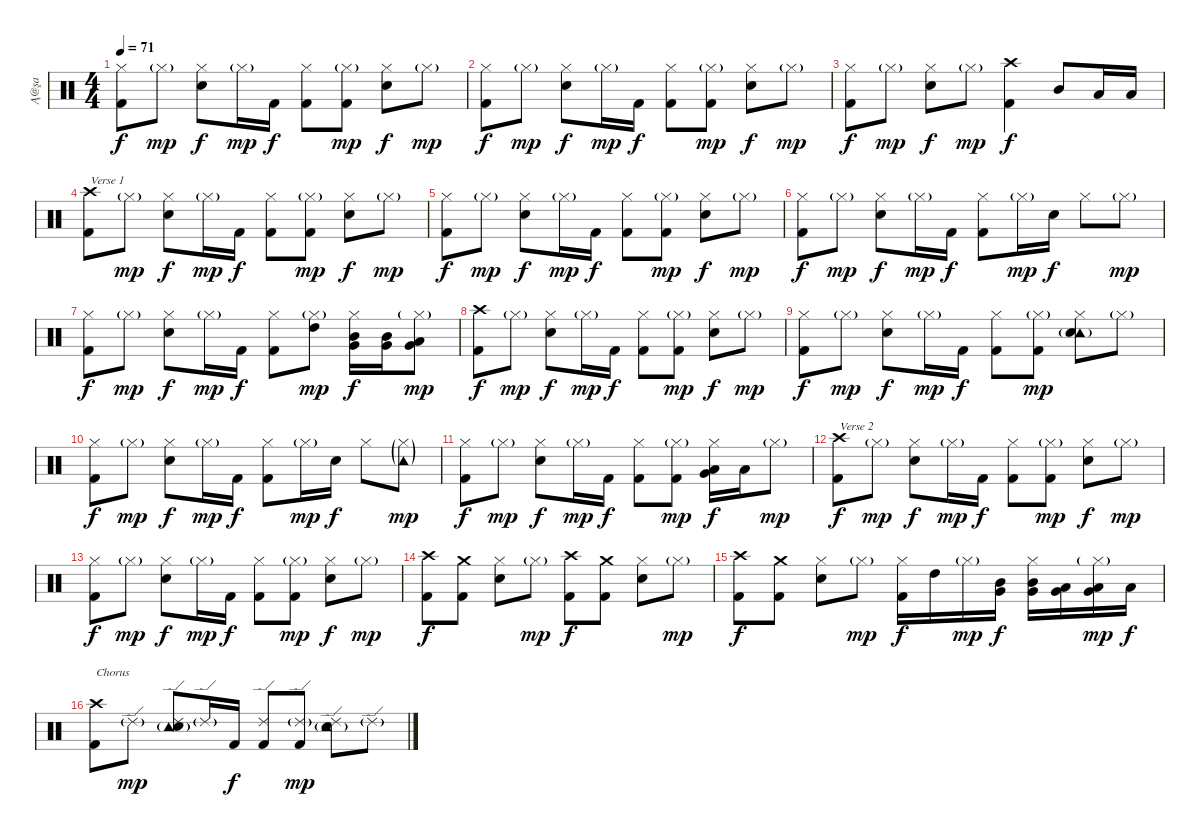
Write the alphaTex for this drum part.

\track ("Ą@şa" "Ą@şa") {instrument percussion}
\staff {score}
\articulation defaults
\ts (4 4)
\tempo 71
\clef neutral
\ks c
("Hi-Hat (closed)" "Kick (hit) 2").8{dy f} "Hi-Hat (closed)"{g}.8{dy mp} ("Hi-Hat (closed)" "Electric Snare (hit)").8{dy f} "Hi-Hat (closed)"{g}.16{dy mp} "Kick (hit) 2".16{dy f} ("Hi-Hat (closed)" "Kick (hit) 2").8 ("Hi-Hat (closed)"{g} "Kick (hit) 2").8{dy mp} ("Hi-Hat (closed)" "Electric Snare (hit)").8{dy f} "Hi-Hat (closed)"{g}.8{dy mp} |
("Hi-Hat (closed)" "Kick (hit) 2").8{dy f} "Hi-Hat (closed)"{g}.8{dy mp} ("Hi-Hat (closed)" "Electric Snare (hit)").8{dy f} "Hi-Hat (closed)"{g}.16{dy mp} "Kick (hit) 2".16{dy f} ("Hi-Hat (closed)" "Kick (hit) 2").8 ("Hi-Hat (closed)"{g} "Kick (hit) 2").8{dy mp} ("Hi-Hat (closed)" "Electric Snare (hit)").8{dy f} "Hi-Hat (closed)"{g}.8{dy mp} |
("Hi-Hat (closed)" "Kick (hit) 2").8{dy f} "Hi-Hat (closed)"{g}.8{dy mp} ("Hi-Hat (closed)" "Electric Snare (hit)").8{dy f} "Hi-Hat (closed)"{g}.8{dy mp} ("Crash high (hit)" "Kick (hit) 2").4{dy f} "Mid Tom (hit)".8 "Low Tom (hit)".16 "Low Tom (hit)".16 |
("Crash high (hit)" "Kick (hit) 2").8{txt "Verse 1"} "Hi-Hat (closed)"{g}.8{dy mp} ("Hi-Hat (closed)" "Electric Snare (hit)").8{dy f} "Hi-Hat (closed)"{g}.16{dy mp} "Kick (hit) 2".16{dy f} ("Hi-Hat (closed)" "Kick (hit) 2").8 ("Hi-Hat (closed)"{g} "Kick (hit) 2").8{dy mp} ("Hi-Hat (closed)" "Electric Snare (hit)").8{dy f} "Hi-Hat (closed)"{g}.8{dy mp} |
("Hi-Hat (closed)" "Kick (hit) 2").8{dy f} "Hi-Hat (closed)"{g}.8{dy mp} ("Hi-Hat (closed)" "Electric Snare (hit)").8{dy f} "Hi-Hat (closed)"{g}.16{dy mp} "Kick (hit) 2".16{dy f} ("Hi-Hat (closed)" "Kick (hit) 2").8 ("Hi-Hat (closed)"{g} "Kick (hit) 2").8{dy mp} ("Hi-Hat (closed)" "Electric Snare (hit)").8{dy f} "Hi-Hat (closed)"{g}.8{dy mp} |
("Hi-Hat (closed)" "Kick (hit) 2").8{dy f} "Hi-Hat (closed)"{g}.8{dy mp} ("Hi-Hat (closed)" "Electric Snare (hit)").8{dy f} "Hi-Hat (closed)"{g}.16{dy mp} "Kick (hit) 2".16{dy f} ("Hi-Hat (closed)" "Kick (hit) 2").8 "Hi-Hat (closed)"{g}.16{dy mp} "Electric Snare (hit)".16{dy f} "Hi-Hat (closed)".8 "Hi-Hat (closed)"{g}.8{dy mp} |
("Hi-Hat (closed)" "Kick (hit) 2").8{dy f} "Hi-Hat (closed)"{g}.8{dy mp} ("Hi-Hat (closed)" "Electric Snare (hit)").8{dy f} "Hi-Hat (closed)"{g}.16{dy mp} "Kick (hit) 2".16{dy f} ("Hi-Hat (closed)" "Kick (hit) 2").8 ("Hi-Hat (closed)"{g} "High Tom (hit)").8{dy mp} ("Hi-Hat (closed)" "Mid Tom (hit)" "Very Low Tom (hit)").16{dy f} ("Mid Tom (hit)" "Very Low Tom (hit)").16 ("Hi-Hat (closed)"{g} "Low Tom (hit)" "Very Low Tom (hit)").8{dy mp} |
("Crash high (hit)" "Kick (hit) 2").8{dy f} "Hi-Hat (closed)"{g}.8{dy mp} ("Hi-Hat (closed)" "Electric Snare (hit)").8{dy f} "Hi-Hat (closed)"{g}.16{dy mp} "Kick (hit) 2".16{dy f} ("Hi-Hat (closed)" "Kick (hit) 2").8 ("Hi-Hat (closed)"{g} "Kick (hit) 2").8{dy mp} ("Hi-Hat (closed)" "Electric Snare (hit)").8{dy f} "Hi-Hat (closed)"{g}.8{dy mp} |
("Hi-Hat (closed)" "Kick (hit) 2").8{dy f} "Hi-Hat (closed)"{g}.8{dy mp} ("Hi-Hat (closed)" "Electric Snare (hit)").8{dy f} "Hi-Hat (closed)"{g}.16{dy mp} "Kick (hit) 2".16{dy f} ("Hi-Hat (closed)" "Kick (hit) 2").8 ("Hi-Hat (closed)"{g} "Kick (hit) 2").8{dy mp} ("Hi-Hat (closed)" "Tambourine (hit)"{g} "Electric Snare (hit)").8 "Hi-Hat (closed)"{g}.8 |
("Hi-Hat (closed)" "Kick (hit) 2").8{dy f} "Hi-Hat (closed)"{g}.8{dy mp} ("Hi-Hat (closed)" "Electric Snare (hit)").8{dy f} "Hi-Hat (closed)"{g}.16{dy mp} "Kick (hit) 2".16{dy f} ("Hi-Hat (closed)" "Kick (hit) 2").8 "Hi-Hat (closed)"{g}.16{dy mp} "Electric Snare (hit)".16{dy f} "Hi-Hat (closed)".8 ("Hi-Hat (closed)"{g} "Tambourine (hit)"{g}).8{dy mp} |
("Hi-Hat (closed)" "Kick (hit) 2").8{dy f} "Hi-Hat (closed)"{g}.8{dy mp} ("Hi-Hat (closed)" "Electric Snare (hit)").8{dy f} "Hi-Hat (closed)"{g}.16{dy mp} "Kick (hit) 2".16{dy f} ("Hi-Hat (closed)" "Kick (hit) 2").8 ("Hi-Hat (closed)"{g} "Kick (hit) 2").8{dy mp} ("Hi-Hat (closed)" "Low Tom (hit)" "Very Low Tom (hit)").16{dy f} "Low Tom (hit)".16 "Hi-Hat (closed)"{g}.8{dy mp} |
("Crash high (hit)" "Kick (hit) 2").8{txt "Verse 2" dy f} "Hi-Hat (closed)"{g}.8{dy mp} ("Hi-Hat (closed)" "Electric Snare (hit)").8{dy f} "Hi-Hat (closed)"{g}.16{dy mp} "Kick (hit) 2".16{dy f} ("Hi-Hat (closed)" "Kick (hit) 2").8 ("Hi-Hat (closed)"{g} "Kick (hit) 2").8{dy mp} ("Hi-Hat (closed)" "Electric Snare (hit)").8{dy f} "Hi-Hat (closed)"{g}.8{dy mp} |
("Hi-Hat (closed)" "Kick (hit) 2").8{dy f} "Hi-Hat (closed)"{g}.8{dy mp} ("Hi-Hat (closed)" "Electric Snare (hit)").8{dy f} "Hi-Hat (closed)"{g}.16{dy mp} "Kick (hit) 2".16{dy f} ("Hi-Hat (closed)" "Kick (hit) 2").8 ("Hi-Hat (closed)"{g} "Kick (hit) 2").8{dy mp} ("Hi-Hat (closed)" "Electric Snare (hit)").8{dy f} "Hi-Hat (closed)"{g}.8{dy mp} |
("Crash high (hit)" "Kick (hit) 2").8{dy f} ("Crash medium (hit)" "Kick (hit) 2").8 ("Hi-Hat (closed)" "Electric Snare (hit)").8 "Hi-Hat (closed)"{g}.8{dy mp} ("Crash high (hit)" "Kick (hit) 2").8{dy f} ("Crash medium (hit)" "Kick (hit) 2").8 ("Hi-Hat (closed)" "Electric Snare (hit)").8 "Hi-Hat (closed)"{g}.8{dy mp} |
("Crash high (hit)" "Kick (hit) 2").8{dy f} ("Crash medium (hit)" "Kick (hit) 2").8 ("Hi-Hat (closed)" "Electric Snare (hit)").8 "Hi-Hat (closed)"{g}.8{dy mp} ("Hi-Hat (closed)" "Kick (hit) 2").16{dy f} "High Tom (hit)".16 "Hi-Hat (closed)"{g}.16{dy mp} ("Mid Tom (hit)" "Very Low Tom (hit)").16{dy f} ("Hi-Hat (closed)" "Mid Tom (hit)" "Very Low Tom (hit)").16 ("Low Tom (hit)" "Very Low Tom (hit)").16 ("Hi-Hat (closed)"{g} "Low Tom (hit)" "Very Low Tom (hit)").16{dy mp} "Low Tom (hit)".16{dy f} |
("Crash high (hit)" "Kick (hit) 2").8{txt "Chorus"} "Ride (edge) 2"{g}.8{dy mp} ("Ride (edge) 2" "Tambourine (hit)"{g} "Electric Snare (hit)").8 "Ride (edge) 2"{g}.16 "Kick (hit) 2".16{dy f} ("Ride (edge) 2" "Kick (hit) 2").8 ("Ride (edge) 2"{g} "Kick (hit) 2").8{dy mp} ("Ride (edge) 2" "Tambourine (hit)"{g} "Electric Snare (hit)").8 "Ride (edge) 2"{g}.8
